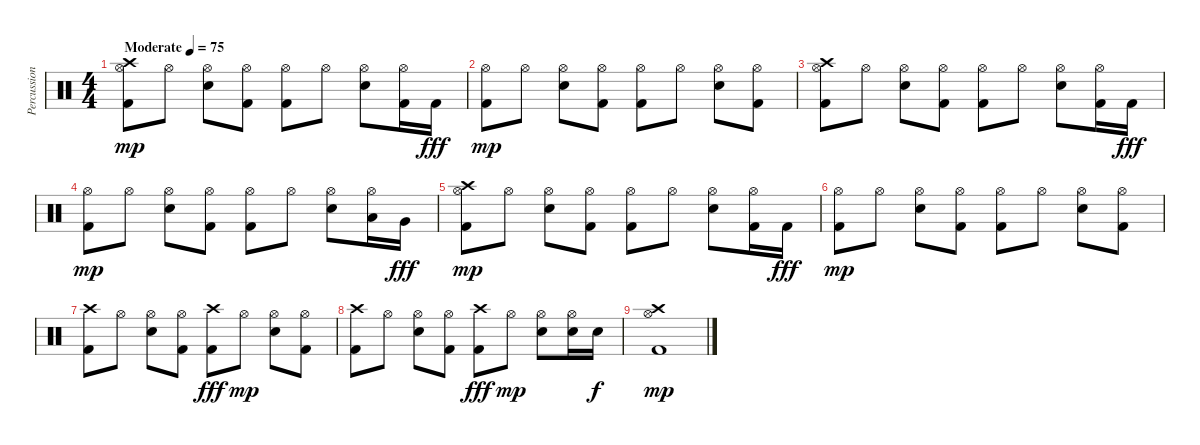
\track ("Percussion" "Percussion") {instrument percussion}
\staff {score}
\articulation defaults
\ts (4 4)
\tempo (75 "Moderate")
\clef neutral
\ks c
("Kick (hit) 2" "Hi-Hat (open)" "Crash high (hit)").8{dy mp} "Hi-Hat (open)".8 ("Electric Snare (hit)" "Hi-Hat (open)").8 ("Kick (hit) 2" "Hi-Hat (open)").8 ("Kick (hit) 2" "Hi-Hat (open)").8 "Hi-Hat (open)".8 ("Electric Snare (hit)" "Hi-Hat (open)").8 ("Kick (hit) 2" "Hi-Hat (open)").16 "Kick (hit) 2".16{dy fff} |
("Kick (hit) 2" "Hi-Hat (open)").8{dy mp} "Hi-Hat (open)".8 ("Electric Snare (hit)" "Hi-Hat (open)").8 ("Kick (hit) 2" "Hi-Hat (open)").8 ("Kick (hit) 2" "Hi-Hat (open)").8 "Hi-Hat (open)".8 ("Electric Snare (hit)" "Hi-Hat (open)").8 ("Kick (hit) 2" "Hi-Hat (open)").8 |
("Kick (hit) 2" "Hi-Hat (open)" "Crash high (hit)").8 "Hi-Hat (open)".8 ("Electric Snare (hit)" "Hi-Hat (open)").8 ("Kick (hit) 2" "Hi-Hat (open)").8 ("Kick (hit) 2" "Hi-Hat (open)").8 "Hi-Hat (open)".8 ("Electric Snare (hit)" "Hi-Hat (open)").8 ("Kick (hit) 2" "Hi-Hat (open)").16 "Kick (hit) 2".16{dy fff} |
("Kick (hit) 2" "Hi-Hat (open)").8{dy mp} "Hi-Hat (open)".8 ("Electric Snare (hit)" "Hi-Hat (open)").8 ("Kick (hit) 2" "Hi-Hat (open)").8 ("Kick (hit) 2" "Hi-Hat (open)").8 "Hi-Hat (open)".8 ("Electric Snare (hit)" "Hi-Hat (open)").8 ("Low Tom (hit)" "Hi-Hat (open)").16 "Very Low Tom (hit)".16{dy fff} |
("Kick (hit) 2" "Hi-Hat (open)" "Crash high (hit)").8{dy mp} "Hi-Hat (open)".8 ("Electric Snare (hit)" "Hi-Hat (open)").8 ("Kick (hit) 2" "Hi-Hat (open)").8 ("Kick (hit) 2" "Hi-Hat (open)").8 "Hi-Hat (open)".8 ("Electric Snare (hit)" "Hi-Hat (open)").8 ("Kick (hit) 2" "Hi-Hat (open)").16 "Kick (hit) 2".16{dy fff} |
("Kick (hit) 2" "Hi-Hat (open)").8{dy mp} "Hi-Hat (open)".8 ("Electric Snare (hit)" "Hi-Hat (open)").8 ("Kick (hit) 2" "Hi-Hat (open)").8 ("Kick (hit) 2" "Hi-Hat (open)").8 "Hi-Hat (open)".8 ("Electric Snare (hit)" "Hi-Hat (open)").8 ("Kick (hit) 2" "Hi-Hat (open)").8 |
("Kick (hit) 2" "Crash high (hit)").8 "Hi-Hat (open)".8 ("Electric Snare (hit)" "Hi-Hat (open)").8 ("Kick (hit) 2" "Hi-Hat (open)").8 ("Kick (hit) 2" "Crash high (hit)").8{dy fff} "Hi-Hat (open)".8{dy mp} ("Electric Snare (hit)" "Hi-Hat (open)").8 ("Kick (hit) 2" "Hi-Hat (open)").8 |
("Kick (hit) 2" "Crash high (hit)").8 "Hi-Hat (open)".8 ("Electric Snare (hit)" "Hi-Hat (open)").8 ("Kick (hit) 2" "Hi-Hat (open)").8 ("Kick (hit) 2" "Crash high (hit)").8{dy fff} "Hi-Hat (open)".8{dy mp} ("Electric Snare (hit)" "Hi-Hat (open)").8 ("Electric Snare (hit)" "Hi-Hat (open)").16 "Electric Snare (hit)".16{dy f} |
("Kick (hit) 2" "Hi-Hat (open)" "Crash high (hit)").1{dy mp}
